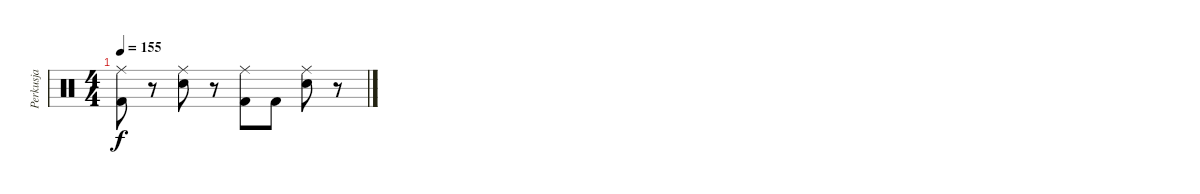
\track ("Perkusja" "Perkusja") {instrument percussion}
\staff {score}
\articulation defaults
\ts (4 4)
\tempo 155
\clef neutral
\ks c
("Ride (middle)" "Kick (hit) 2").8{dy f} r.8 ("Ride (middle)" "Electric Snare (hit)").8 r.8 ("Ride (middle)" "Kick (hit) 2").8 "Kick (hit) 2".8 ("Ride (middle)" "Electric Snare (hit)").8 r.8
